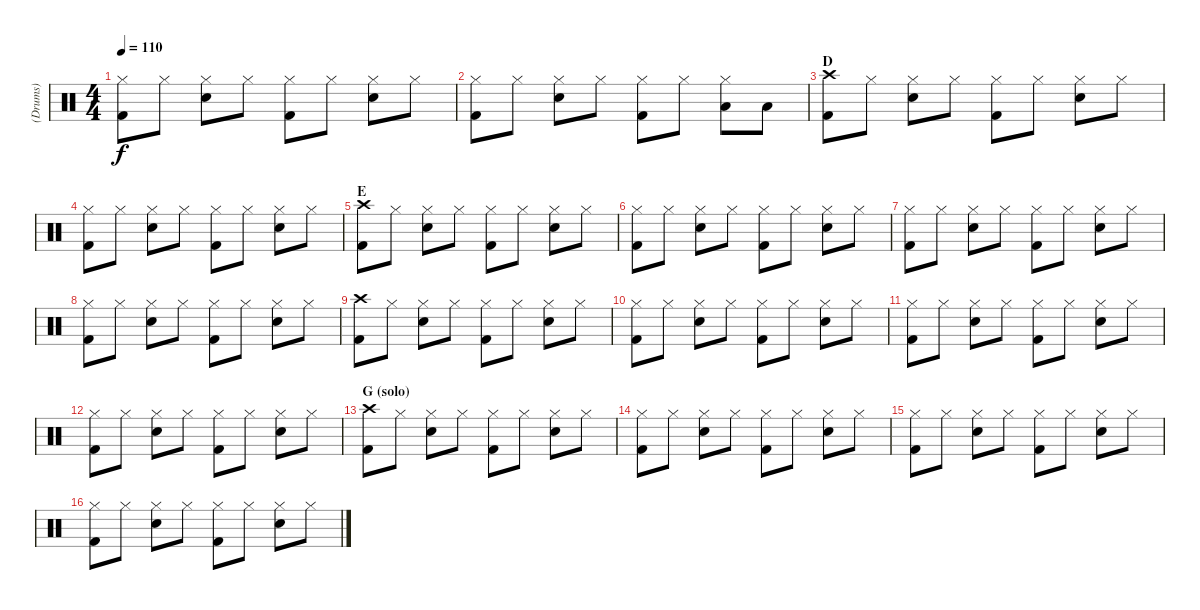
\track ("(Drums)" "(Drums)") {instrument percussion}
\staff {score}
\articulation defaults
\ts (4 4)
\tempo 110
\clef neutral
\ks c
("Hi-Hat (closed)" "Kick (hit) 2").8{dy f} "Hi-Hat (closed)".8 ("Hi-Hat (closed)" "Electric Snare (hit)").8 "Hi-Hat (closed)".8 ("Hi-Hat (closed)" "Kick (hit) 2").8 "Hi-Hat (closed)".8 ("Hi-Hat (closed)" "Electric Snare (hit)").8 "Hi-Hat (closed)".8 |
("Hi-Hat (closed)" "Kick (hit) 2").8 "Hi-Hat (closed)".8 ("Hi-Hat (closed)" "Electric Snare (hit)").8 "Hi-Hat (closed)".8 ("Hi-Hat (closed)" "Kick (hit) 2").8 "Hi-Hat (closed)".8 ("Hi-Hat (closed)" "Low Tom (hit)").8 "Low Tom (hit)".8 |
\section ("" "D")
("Crash high (hit)" "Kick (hit) 2").8 "Hi-Hat (closed)".8 ("Hi-Hat (closed)" "Electric Snare (hit)").8 "Hi-Hat (closed)".8 ("Hi-Hat (closed)" "Kick (hit) 2").8 "Hi-Hat (closed)".8 ("Hi-Hat (closed)" "Electric Snare (hit)").8 "Hi-Hat (closed)".8 |
("Hi-Hat (closed)" "Kick (hit) 2").8 "Hi-Hat (closed)".8 ("Hi-Hat (closed)" "Electric Snare (hit)").8 "Hi-Hat (closed)".8 ("Hi-Hat (closed)" "Kick (hit) 2").8 "Hi-Hat (closed)".8 ("Hi-Hat (closed)" "Electric Snare (hit)").8 "Hi-Hat (closed)".8 |
\section ("" "E")
("Crash high (hit)" "Kick (hit) 2").8 "Hi-Hat (closed)".8 ("Hi-Hat (closed)" "Electric Snare (hit)").8 "Hi-Hat (closed)".8 ("Hi-Hat (closed)" "Kick (hit) 2").8 "Hi-Hat (closed)".8 ("Hi-Hat (closed)" "Electric Snare (hit)").8 "Hi-Hat (closed)".8 |
("Hi-Hat (closed)" "Kick (hit) 2").8 "Hi-Hat (closed)".8 ("Hi-Hat (closed)" "Electric Snare (hit)").8 "Hi-Hat (closed)".8 ("Hi-Hat (closed)" "Kick (hit) 2").8 "Hi-Hat (closed)".8 ("Hi-Hat (closed)" "Electric Snare (hit)").8 "Hi-Hat (closed)".8 |
("Hi-Hat (closed)" "Kick (hit) 2").8 "Hi-Hat (closed)".8 ("Hi-Hat (closed)" "Electric Snare (hit)").8 "Hi-Hat (closed)".8 ("Hi-Hat (closed)" "Kick (hit) 2").8 "Hi-Hat (closed)".8 ("Hi-Hat (closed)" "Electric Snare (hit)").8 "Hi-Hat (closed)".8 |
("Hi-Hat (closed)" "Kick (hit) 2").8 "Hi-Hat (closed)".8 ("Hi-Hat (closed)" "Electric Snare (hit)").8 "Hi-Hat (closed)".8 ("Hi-Hat (closed)" "Kick (hit) 2").8 "Hi-Hat (closed)".8 ("Hi-Hat (closed)" "Electric Snare (hit)").8 "Hi-Hat (closed)".8 |
("Crash high (hit)" "Kick (hit) 2").8 "Hi-Hat (closed)".8 ("Hi-Hat (closed)" "Electric Snare (hit)").8 "Hi-Hat (closed)".8 ("Hi-Hat (closed)" "Kick (hit) 2").8 "Hi-Hat (closed)".8 ("Hi-Hat (closed)" "Electric Snare (hit)").8 "Hi-Hat (closed)".8 |
("Hi-Hat (closed)" "Kick (hit) 2").8 "Hi-Hat (closed)".8 ("Hi-Hat (closed)" "Electric Snare (hit)").8 "Hi-Hat (closed)".8 ("Hi-Hat (closed)" "Kick (hit) 2").8 "Hi-Hat (closed)".8 ("Hi-Hat (closed)" "Electric Snare (hit)").8 "Hi-Hat (closed)".8 |
("Hi-Hat (closed)" "Kick (hit) 2").8 "Hi-Hat (closed)".8 ("Hi-Hat (closed)" "Electric Snare (hit)").8 "Hi-Hat (closed)".8 ("Hi-Hat (closed)" "Kick (hit) 2").8 "Hi-Hat (closed)".8 ("Hi-Hat (closed)" "Electric Snare (hit)").8 "Hi-Hat (closed)".8 |
("Hi-Hat (closed)" "Kick (hit) 2").8 "Hi-Hat (closed)".8 ("Hi-Hat (closed)" "Electric Snare (hit)").8 "Hi-Hat (closed)".8 ("Hi-Hat (closed)" "Kick (hit) 2").8 "Hi-Hat (closed)".8 ("Hi-Hat (closed)" "Electric Snare (hit)").8 "Hi-Hat (closed)".8 |
\section ("" "G (solo)")
("Crash high (hit)" "Kick (hit) 2").8 "Hi-Hat (closed)".8 ("Hi-Hat (closed)" "Electric Snare (hit)").8 "Hi-Hat (closed)".8 ("Hi-Hat (closed)" "Kick (hit) 2").8 "Hi-Hat (closed)".8 ("Hi-Hat (closed)" "Electric Snare (hit)").8 "Hi-Hat (closed)".8 |
("Hi-Hat (closed)" "Kick (hit) 2").8 "Hi-Hat (closed)".8 ("Hi-Hat (closed)" "Electric Snare (hit)").8 "Hi-Hat (closed)".8 ("Hi-Hat (closed)" "Kick (hit) 2").8 "Hi-Hat (closed)".8 ("Hi-Hat (closed)" "Electric Snare (hit)").8 "Hi-Hat (closed)".8 |
("Hi-Hat (closed)" "Kick (hit) 2").8 "Hi-Hat (closed)".8 ("Hi-Hat (closed)" "Electric Snare (hit)").8 "Hi-Hat (closed)".8 ("Hi-Hat (closed)" "Kick (hit) 2").8 "Hi-Hat (closed)".8 ("Hi-Hat (closed)" "Electric Snare (hit)").8 "Hi-Hat (closed)".8 |
("Hi-Hat (closed)" "Kick (hit) 2").8 "Hi-Hat (closed)".8 ("Hi-Hat (closed)" "Electric Snare (hit)").8 "Hi-Hat (closed)".8 ("Hi-Hat (closed)" "Kick (hit) 2").8 "Hi-Hat (closed)".8 ("Hi-Hat (closed)" "Electric Snare (hit)").8 "Hi-Hat (closed)".8
